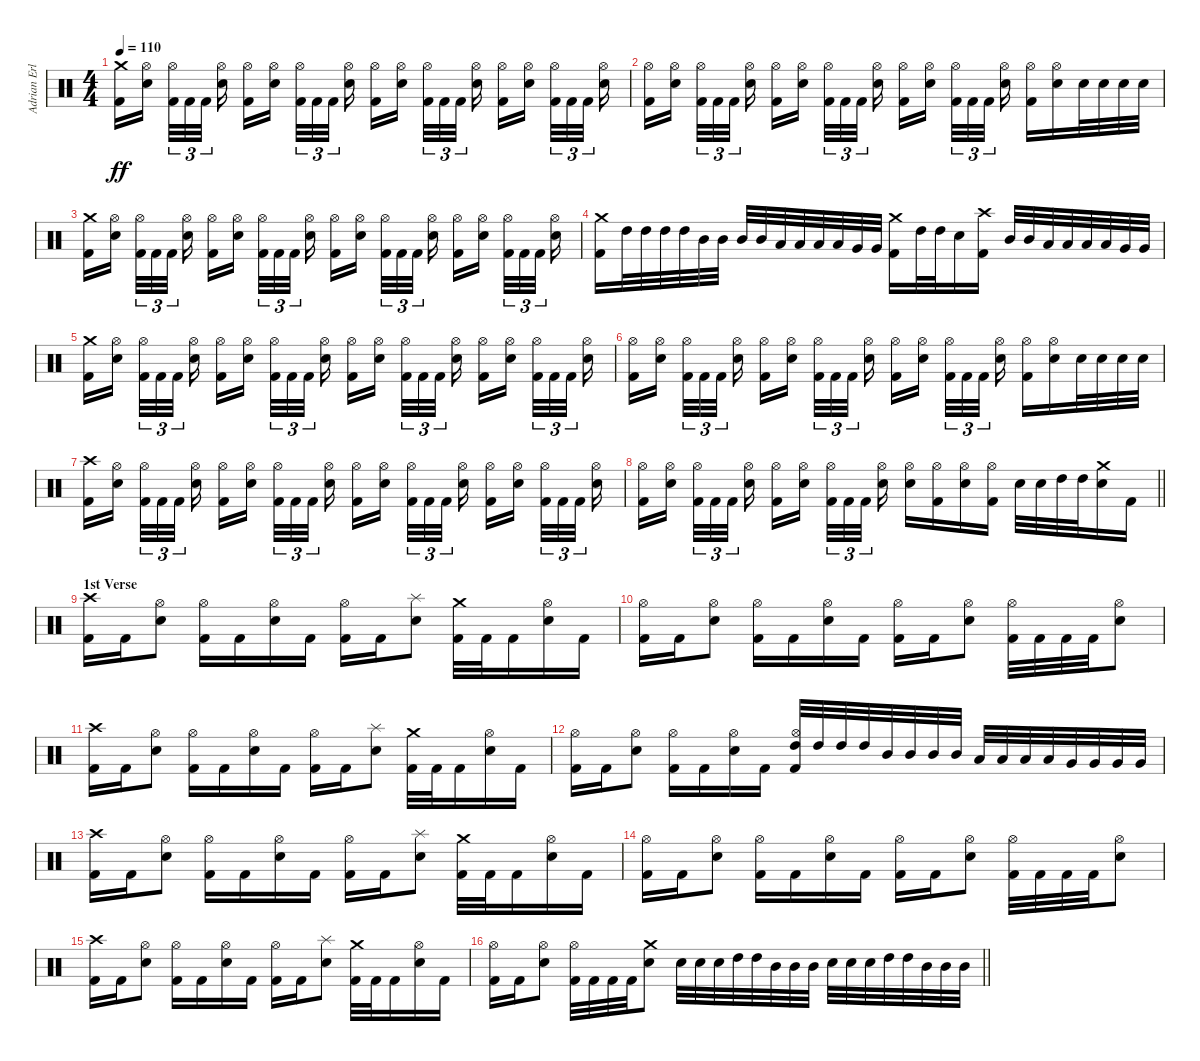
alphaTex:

\track ("Adrian Erlandsson" "Adrian Erl") {instrument percussion}
\staff {score}
\articulation defaults
\ts (4 4)
\tempo 110
\clef neutral
\ks c
("Kick (hit) 2" "Crash medium (hit)").16{dy ff} ("Electric Snare (hit)" "Hi-Hat (open)").16{beam splitsecondary} ("Kick (hit) 2" "Hi-Hat (open)").32{tu (3 2)} "Kick (hit) 2".32{tu (3 2)} "Kick (hit) 2".32{tu (3 2) beam splitsecondary} ("Electric Snare (hit)" "Hi-Hat (open)").16 ("Kick (hit) 2" "Hi-Hat (open)").16 ("Electric Snare (hit)" "Hi-Hat (open)").16{beam splitsecondary} ("Kick (hit) 2" "Hi-Hat (open)").32{tu (3 2)} "Kick (hit) 2".32{tu (3 2)} "Kick (hit) 2".32{tu (3 2) beam splitsecondary} ("Electric Snare (hit)" "Hi-Hat (open)").16 ("Kick (hit) 2" "Hi-Hat (open)").16 ("Electric Snare (hit)" "Hi-Hat (open)").16{beam splitsecondary} ("Kick (hit) 2" "Hi-Hat (open)").32{tu (3 2)} "Kick (hit) 2".32{tu (3 2)} "Kick (hit) 2".32{tu (3 2) beam splitsecondary} ("Electric Snare (hit)" "Hi-Hat (open)").16 ("Kick (hit) 2" "Hi-Hat (open)").16 ("Electric Snare (hit)" "Hi-Hat (open)").16{beam splitsecondary} ("Kick (hit) 2" "Hi-Hat (open)").32{tu (3 2)} "Kick (hit) 2".32{tu (3 2)} "Kick (hit) 2".32{tu (3 2) beam splitsecondary} ("Electric Snare (hit)" "Hi-Hat (open)").16 |
("Kick (hit) 2" "Hi-Hat (open)").16 ("Electric Snare (hit)" "Hi-Hat (open)").16{beam splitsecondary} ("Kick (hit) 2" "Hi-Hat (open)").32{tu (3 2)} "Kick (hit) 2".32{tu (3 2)} "Kick (hit) 2".32{tu (3 2) beam splitsecondary} ("Electric Snare (hit)" "Hi-Hat (open)").16 ("Kick (hit) 2" "Hi-Hat (open)").16 ("Electric Snare (hit)" "Hi-Hat (open)").16{beam splitsecondary} ("Kick (hit) 2" "Hi-Hat (open)").32{tu (3 2)} "Kick (hit) 2".32{tu (3 2)} "Kick (hit) 2".32{tu (3 2) beam splitsecondary} ("Electric Snare (hit)" "Hi-Hat (open)").16 ("Kick (hit) 2" "Hi-Hat (open)").16 ("Electric Snare (hit)" "Hi-Hat (open)").16{beam splitsecondary} ("Kick (hit) 2" "Hi-Hat (open)").32{tu (3 2)} "Kick (hit) 2".32{tu (3 2)} "Kick (hit) 2".32{tu (3 2) beam splitsecondary} ("Electric Snare (hit)" "Hi-Hat (open)").16 ("Kick (hit) 2" "Hi-Hat (open)").16 ("Electric Snare (hit)" "Hi-Hat (open)").16 "Electric Snare (hit)".32 "Electric Snare (hit)".32 "Electric Snare (hit)".32 "Electric Snare (hit)".32 |
("Kick (hit) 2" "Crash medium (hit)").16 ("Electric Snare (hit)" "Hi-Hat (open)").16{beam splitsecondary} ("Kick (hit) 2" "Hi-Hat (open)").32{tu (3 2)} "Kick (hit) 2".32{tu (3 2)} "Kick (hit) 2".32{tu (3 2) beam splitsecondary} ("Electric Snare (hit)" "Hi-Hat (open)").16 ("Kick (hit) 2" "Hi-Hat (open)").16 ("Electric Snare (hit)" "Hi-Hat (open)").16{beam splitsecondary} ("Kick (hit) 2" "Hi-Hat (open)").32{tu (3 2)} "Kick (hit) 2".32{tu (3 2)} "Kick (hit) 2".32{tu (3 2) beam splitsecondary} ("Electric Snare (hit)" "Hi-Hat (open)").16 ("Kick (hit) 2" "Hi-Hat (open)").16 ("Electric Snare (hit)" "Hi-Hat (open)").16{beam splitsecondary} ("Kick (hit) 2" "Hi-Hat (open)").32{tu (3 2)} "Kick (hit) 2".32{tu (3 2)} "Kick (hit) 2".32{tu (3 2) beam splitsecondary} ("Electric Snare (hit)" "Hi-Hat (open)").16 ("Kick (hit) 2" "Hi-Hat (open)").16 ("Electric Snare (hit)" "Hi-Hat (open)").16{beam splitsecondary} ("Kick (hit) 2" "Hi-Hat (open)").32{tu (3 2)} "Kick (hit) 2".32{tu (3 2)} "Kick (hit) 2".32{tu (3 2) beam splitsecondary} ("Electric Snare (hit)" "Hi-Hat (open)").16 |
("Kick (hit) 2" "Crash medium (hit)").16 "High Tom (hit)".32 "High Tom (hit)".32 "High Tom (hit)".32 "High Tom (hit)".32 "Mid Tom (hit)".32 "Mid Tom (hit)".32 "Mid Tom (hit)".32 "Mid Tom (hit)".32 "Low Tom (hit)".32 "Low Tom (hit)".32 "Low Tom (hit)".32 "Low Tom (hit)".32 "Very Low Tom (hit)".32 "Very Low Tom (hit)".32 ("Kick (hit) 2" "Crash medium (hit)").16 "High Tom (hit)".32 "High Tom (hit)".32 "Electric Snare (hit)".16 ("Kick (hit) 2" "Crash high (hit)").16 "Mid Tom (hit)".32 "Mid Tom (hit)".32 "Low Tom (hit)".32 "Low Tom (hit)".32 "Low Tom (hit)".32 "Low Tom (hit)".32 "Very Low Tom (hit)".32 "Very Low Tom (hit)".32 |
("Kick (hit) 2" "Crash medium (hit)").16 ("Electric Snare (hit)" "Hi-Hat (open)").16{beam splitsecondary} ("Kick (hit) 2" "Hi-Hat (open)").32{tu (3 2)} "Kick (hit) 2".32{tu (3 2)} "Kick (hit) 2".32{tu (3 2) beam splitsecondary} ("Electric Snare (hit)" "Hi-Hat (open)").16 ("Kick (hit) 2" "Hi-Hat (open)").16 ("Electric Snare (hit)" "Hi-Hat (open)").16{beam splitsecondary} ("Kick (hit) 2" "Hi-Hat (open)").32{tu (3 2)} "Kick (hit) 2".32{tu (3 2)} "Kick (hit) 2".32{tu (3 2) beam splitsecondary} ("Electric Snare (hit)" "Hi-Hat (open)").16 ("Kick (hit) 2" "Hi-Hat (open)").16 ("Electric Snare (hit)" "Hi-Hat (open)").16{beam splitsecondary} ("Kick (hit) 2" "Hi-Hat (open)").32{tu (3 2)} "Kick (hit) 2".32{tu (3 2)} "Kick (hit) 2".32{tu (3 2) beam splitsecondary} ("Electric Snare (hit)" "Hi-Hat (open)").16 ("Kick (hit) 2" "Hi-Hat (open)").16 ("Electric Snare (hit)" "Hi-Hat (open)").16{beam splitsecondary} ("Kick (hit) 2" "Hi-Hat (open)").32{tu (3 2)} "Kick (hit) 2".32{tu (3 2)} "Kick (hit) 2".32{tu (3 2) beam splitsecondary} ("Electric Snare (hit)" "Hi-Hat (open)").16 |
("Kick (hit) 2" "Hi-Hat (open)").16 ("Electric Snare (hit)" "Hi-Hat (open)").16{beam splitsecondary} ("Kick (hit) 2" "Hi-Hat (open)").32{tu (3 2)} "Kick (hit) 2".32{tu (3 2)} "Kick (hit) 2".32{tu (3 2) beam splitsecondary} ("Electric Snare (hit)" "Hi-Hat (open)").16 ("Kick (hit) 2" "Hi-Hat (open)").16 ("Electric Snare (hit)" "Hi-Hat (open)").16{beam splitsecondary} ("Kick (hit) 2" "Hi-Hat (open)").32{tu (3 2)} "Kick (hit) 2".32{tu (3 2)} "Kick (hit) 2".32{tu (3 2) beam splitsecondary} ("Electric Snare (hit)" "Hi-Hat (open)").16 ("Kick (hit) 2" "Hi-Hat (open)").16 ("Electric Snare (hit)" "Hi-Hat (open)").16{beam splitsecondary} ("Kick (hit) 2" "Hi-Hat (open)").32{tu (3 2)} "Kick (hit) 2".32{tu (3 2)} "Kick (hit) 2".32{tu (3 2) beam splitsecondary} ("Electric Snare (hit)" "Hi-Hat (open)").16 ("Kick (hit) 2" "Hi-Hat (open)").16 ("Electric Snare (hit)" "Hi-Hat (open)").16 "Electric Snare (hit)".32 "Electric Snare (hit)".32 "Electric Snare (hit)".32 "Electric Snare (hit)".32 |
("Kick (hit) 2" "Crash high (hit)").16 ("Electric Snare (hit)" "Hi-Hat (open)").16{beam splitsecondary} ("Kick (hit) 2" "Hi-Hat (open)").32{tu (3 2)} "Kick (hit) 2".32{tu (3 2)} "Kick (hit) 2".32{tu (3 2) beam splitsecondary} ("Electric Snare (hit)" "Hi-Hat (open)").16 ("Kick (hit) 2" "Hi-Hat (open)").16 ("Electric Snare (hit)" "Hi-Hat (open)").16{beam splitsecondary} ("Kick (hit) 2" "Hi-Hat (open)").32{tu (3 2)} "Kick (hit) 2".32{tu (3 2)} "Kick (hit) 2".32{tu (3 2) beam splitsecondary} ("Electric Snare (hit)" "Hi-Hat (open)").16 ("Kick (hit) 2" "Hi-Hat (open)").16 ("Electric Snare (hit)" "Hi-Hat (open)").16{beam splitsecondary} ("Kick (hit) 2" "Hi-Hat (open)").32{tu (3 2)} "Kick (hit) 2".32{tu (3 2)} "Kick (hit) 2".32{tu (3 2) beam splitsecondary} ("Electric Snare (hit)" "Hi-Hat (open)").16 ("Kick (hit) 2" "Hi-Hat (open)").16 ("Electric Snare (hit)" "Hi-Hat (open)").16{beam splitsecondary} ("Kick (hit) 2" "Hi-Hat (open)").32{tu (3 2)} "Kick (hit) 2".32{tu (3 2)} "Kick (hit) 2".32{tu (3 2) beam splitsecondary} ("Electric Snare (hit)" "Hi-Hat (open)").16 |
\barLineRight lightlight
("Kick (hit) 2" "Hi-Hat (open)").16 ("Electric Snare (hit)" "Hi-Hat (open)").16{beam splitsecondary} ("Kick (hit) 2" "Hi-Hat (open)").32{tu (3 2)} "Kick (hit) 2".32{tu (3 2)} "Kick (hit) 2".32{tu (3 2) beam splitsecondary} ("Electric Snare (hit)" "Hi-Hat (open)").16 ("Kick (hit) 2" "Hi-Hat (open)").16 ("Electric Snare (hit)" "Hi-Hat (open)").16{beam splitsecondary} ("Kick (hit) 2" "Hi-Hat (open)").32{tu (3 2)} "Kick (hit) 2".32{tu (3 2)} "Kick (hit) 2".32{tu (3 2) beam splitsecondary} ("Electric Snare (hit)" "Hi-Hat (open)").16 ("Electric Snare (hit)" "Hi-Hat (open)").16 ("Kick (hit) 2" "Hi-Hat (open)").16 ("Electric Snare (hit)" "Hi-Hat (open)").16 ("Kick (hit) 2" "Hi-Hat (open)").16 "Electric Snare (hit)".32 "Electric Snare (hit)".32 "High Tom (hit)".32 "High Tom (hit)".32 ("Electric Snare (hit)" "Crash medium (hit)").16 "Kick (hit) 2".16 |
\section ("" "1st Verse")
("Kick (hit) 2" "Crash high (hit)").16 "Kick (hit) 2".16 ("Electric Snare (hit)" "Hi-Hat (open)").8 ("Kick (hit) 2" "Hi-Hat (open)").16 "Kick (hit) 2".16 ("Electric Snare (hit)" "Hi-Hat (open)").16 "Kick (hit) 2".16 ("Kick (hit) 2" "Hi-Hat (open)").16 "Kick (hit) 2".16 ("Electric Snare (hit)" "Splash (hit)").8 ("Kick (hit) 2" "Crash medium (hit)").32 "Kick (hit) 2".32 "Kick (hit) 2".16 ("Electric Snare (hit)" "Hi-Hat (open)").16 "Kick (hit) 2".16 |
("Kick (hit) 2" "Hi-Hat (open)").16 "Kick (hit) 2".16 ("Electric Snare (hit)" "Hi-Hat (open)").8 ("Kick (hit) 2" "Hi-Hat (open)").16 "Kick (hit) 2".16 ("Electric Snare (hit)" "Hi-Hat (open)").16 "Kick (hit) 2".16 ("Kick (hit) 2" "Hi-Hat (open)").16 "Kick (hit) 2".16 ("Electric Snare (hit)" "Hi-Hat (open)").8 ("Kick (hit) 2" "Hi-Hat (open)").32 "Kick (hit) 2".32 "Kick (hit) 2".32 "Kick (hit) 2".32 ("Electric Snare (hit)" "Hi-Hat (open)").8 |
("Kick (hit) 2" "Crash high (hit)").16 "Kick (hit) 2".16 ("Electric Snare (hit)" "Hi-Hat (open)").8 ("Kick (hit) 2" "Hi-Hat (open)").16 "Kick (hit) 2".16 ("Electric Snare (hit)" "Hi-Hat (open)").16 "Kick (hit) 2".16 ("Kick (hit) 2" "Hi-Hat (open)").16 "Kick (hit) 2".16 ("Electric Snare (hit)" "Splash (hit)").8 ("Kick (hit) 2" "Crash medium (hit)").32 "Kick (hit) 2".32 "Kick (hit) 2".16 ("Electric Snare (hit)" "Hi-Hat (open)").16 "Kick (hit) 2".16 |
("Kick (hit) 2" "Hi-Hat (open)").16 "Kick (hit) 2".16 ("Electric Snare (hit)" "Hi-Hat (open)").8 ("Kick (hit) 2" "Hi-Hat (open)").16 "Kick (hit) 2".16 ("Electric Snare (hit)" "Hi-Hat (open)").16 "Kick (hit) 2".16 ("Kick (hit) 2" "High Tom (hit)" "Hi-Hat (open)").32 "High Tom (hit)".32 "High Tom (hit)".32 "High Tom (hit)".32 "Mid Tom (hit)".32 "Mid Tom (hit)".32 "Mid Tom (hit)".32 "Mid Tom (hit)".32 "Low Tom (hit)".32 "Low Tom (hit)".32 "Low Tom (hit)".32 "Low Tom (hit)".32 "Very Low Tom (hit)".32 "Very Low Tom (hit)".32 "Very Low Tom (hit)".32 "Very Low Tom (hit)".32 |
("Kick (hit) 2" "Crash high (hit)").16 "Kick (hit) 2".16 ("Electric Snare (hit)" "Hi-Hat (open)").8 ("Kick (hit) 2" "Hi-Hat (open)").16 "Kick (hit) 2".16 ("Electric Snare (hit)" "Hi-Hat (open)").16 "Kick (hit) 2".16 ("Kick (hit) 2" "Hi-Hat (open)").16 "Kick (hit) 2".16 ("Electric Snare (hit)" "Splash (hit)").8 ("Kick (hit) 2" "Crash medium (hit)").32 "Kick (hit) 2".32 "Kick (hit) 2".16 ("Electric Snare (hit)" "Hi-Hat (open)").16 "Kick (hit) 2".16 |
("Kick (hit) 2" "Hi-Hat (open)").16 "Kick (hit) 2".16 ("Electric Snare (hit)" "Hi-Hat (open)").8 ("Kick (hit) 2" "Hi-Hat (open)").16 "Kick (hit) 2".16 ("Electric Snare (hit)" "Hi-Hat (open)").16 "Kick (hit) 2".16 ("Kick (hit) 2" "Hi-Hat (open)").16 "Kick (hit) 2".16 ("Electric Snare (hit)" "Hi-Hat (open)").8 ("Kick (hit) 2" "Hi-Hat (open)").32 "Kick (hit) 2".32 "Kick (hit) 2".32 "Kick (hit) 2".32 ("Electric Snare (hit)" "Hi-Hat (open)").8 |
("Kick (hit) 2" "Crash high (hit)").16 "Kick (hit) 2".16 ("Electric Snare (hit)" "Hi-Hat (open)").8 ("Kick (hit) 2" "Hi-Hat (open)").16 "Kick (hit) 2".16 ("Electric Snare (hit)" "Hi-Hat (open)").16 "Kick (hit) 2".16 ("Kick (hit) 2" "Hi-Hat (open)").16 "Kick (hit) 2".16 ("Electric Snare (hit)" "Splash (hit)").8 ("Kick (hit) 2" "Crash medium (hit)").32 "Kick (hit) 2".32 "Kick (hit) 2".16 ("Electric Snare (hit)" "Hi-Hat (open)").16 "Kick (hit) 2".16 |
\barLineRight lightlight
("Kick (hit) 2" "Hi-Hat (open)").16 "Kick (hit) 2".16 ("Electric Snare (hit)" "Hi-Hat (open)").8 ("Kick (hit) 2" "Hi-Hat (open)").32 "Kick (hit) 2".32 "Kick (hit) 2".32 "Kick (hit) 2".32 ("Electric Snare (hit)" "Crash medium (hit)").8 "Electric Snare (hit)".32 "Electric Snare (hit)".32 "Electric Snare (hit)".32 "High Tom (hit)".32 "High Tom (hit)".32 "Mid Tom (hit)".32 "Mid Tom (hit)".32 "Mid Tom (hit)".32 "Electric Snare (hit)".32 "Electric Snare (hit)".32 "Electric Snare (hit)".32 "High Tom (hit)".32 "High Tom (hit)".32 "Mid Tom (hit)".32 "Mid Tom (hit)".32 "Mid Tom (hit)".32
